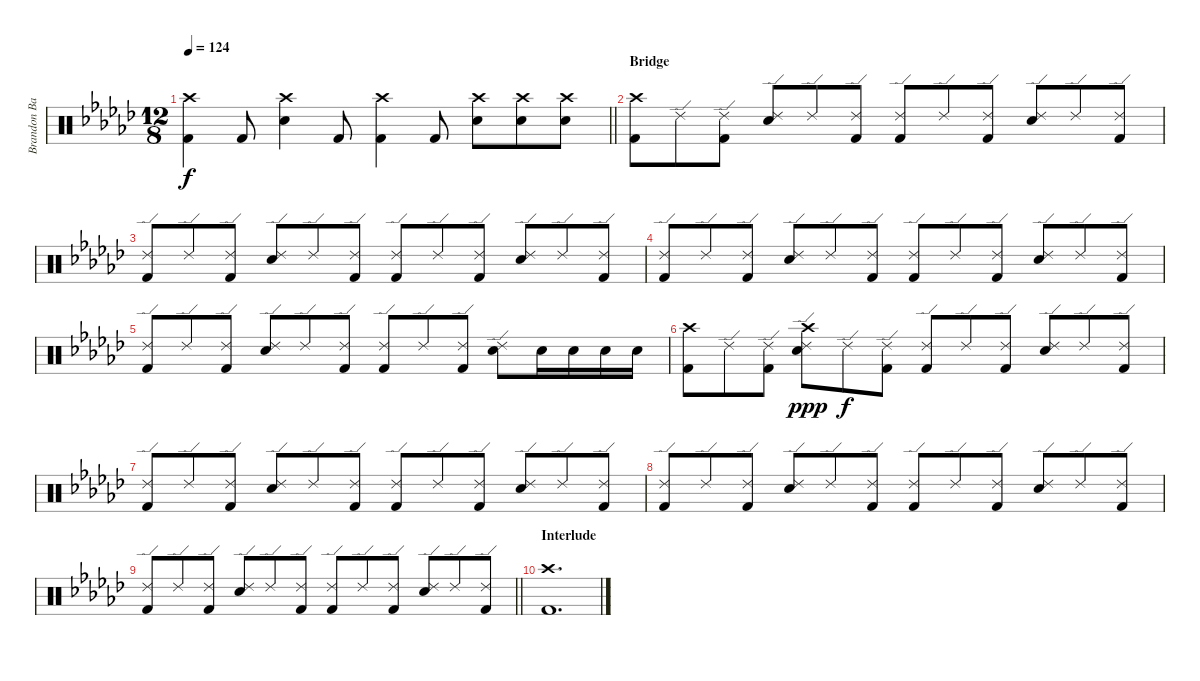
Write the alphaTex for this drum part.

\track ("Brandon Barnes - Drums" "Brandon Ba") {instrument percussion}
\staff {score}
\articulation defaults
\ts (12 8)
\tempo 124
\clef neutral
\barLineRight lightlight
\ks gb
("Crash high (hit)" "Kick (hit) 2").4{dy f} "Kick (hit) 2".8 ("Snare (hit) 2" "Crash high (hit)").4 "Kick (hit) 2".8 ("Crash high (hit)" "Kick (hit) 2").4 "Kick (hit) 2".8 ("Snare (hit) 2" "Crash high (hit)").8 ("Snare (hit) 2" "Crash high (hit)").8 ("Snare (hit) 2" "Crash high (hit)").8 |
\section ("" "Bridge")
("Crash high (hit)" "Kick (hit) 2").8 "Ride (edge) 2".8 ("Ride (edge) 2" "Kick (hit) 2").8 ("Snare (hit) 2" "Ride (edge) 2").8 "Ride (edge) 2".8 ("Ride (edge) 2" "Kick (hit) 2").8 ("Ride (edge) 2" "Kick (hit) 2").8 "Ride (edge) 2".8 ("Ride (edge) 2" "Kick (hit) 2").8 ("Snare (hit) 2" "Ride (edge) 2").8 "Ride (edge) 2".8 ("Ride (edge) 2" "Kick (hit) 2").8 |
("Ride (edge) 2" "Kick (hit) 2").8 "Ride (edge) 2".8 ("Ride (edge) 2" "Kick (hit) 2").8 ("Snare (hit) 2" "Ride (edge) 2").8 "Ride (edge) 2".8 ("Ride (edge) 2" "Kick (hit) 2").8 ("Ride (edge) 2" "Kick (hit) 2").8 "Ride (edge) 2".8 ("Ride (edge) 2" "Kick (hit) 2").8 ("Snare (hit) 2" "Ride (edge) 2").8 "Ride (edge) 2".8 ("Ride (edge) 2" "Kick (hit) 2").8 |
("Ride (edge) 2" "Kick (hit) 2").8 "Ride (edge) 2".8 ("Ride (edge) 2" "Kick (hit) 2").8 ("Snare (hit) 2" "Ride (edge) 2").8 "Ride (edge) 2".8 ("Ride (edge) 2" "Kick (hit) 2").8 ("Ride (edge) 2" "Kick (hit) 2").8 "Ride (edge) 2".8 ("Ride (edge) 2" "Kick (hit) 2").8 ("Snare (hit) 2" "Ride (edge) 2").8 "Ride (edge) 2".8 ("Ride (edge) 2" "Kick (hit) 2").8 |
("Ride (edge) 2" "Kick (hit) 2").8 "Ride (edge) 2".8 ("Ride (edge) 2" "Kick (hit) 2").8 ("Snare (hit) 2" "Ride (edge) 2").8 "Ride (edge) 2".8 ("Ride (edge) 2" "Kick (hit) 2").8 ("Ride (edge) 2" "Kick (hit) 2").8 "Ride (edge) 2".8 ("Ride (edge) 2" "Kick (hit) 2").8 ("Snare (hit) 2" "Ride (edge) 2").8 "Snare (hit) 2".16 "Snare (hit) 2".16 "Snare (hit) 2".16 "Snare (hit) 2".16 |
("Crash high (hit)" "Kick (hit) 2").8 "Ride (edge) 2".8 ("Ride (edge) 2" "Kick (hit) 2").8 ("Snare (hit) 2" "Ride (edge) 2" "Crash high (hit)").8{dy ppp} "Ride (edge) 2".8{dy f} ("Ride (edge) 2" "Kick (hit) 2").8 ("Ride (edge) 2" "Kick (hit) 2").8 "Ride (edge) 2".8 ("Ride (edge) 2" "Kick (hit) 2").8 ("Snare (hit) 2" "Ride (edge) 2").8 "Ride (edge) 2".8 ("Ride (edge) 2" "Kick (hit) 2").8 |
("Ride (edge) 2" "Kick (hit) 2").8 "Ride (edge) 2".8 ("Ride (edge) 2" "Kick (hit) 2").8 ("Snare (hit) 2" "Ride (edge) 2").8 "Ride (edge) 2".8 ("Ride (edge) 2" "Kick (hit) 2").8 ("Ride (edge) 2" "Kick (hit) 2").8 "Ride (edge) 2".8 ("Ride (edge) 2" "Kick (hit) 2").8 ("Snare (hit) 2" "Ride (edge) 2").8 "Ride (edge) 2".8 ("Ride (edge) 2" "Kick (hit) 2").8 |
("Ride (edge) 2" "Kick (hit) 2").8 "Ride (edge) 2".8 ("Ride (edge) 2" "Kick (hit) 2").8 ("Snare (hit) 2" "Ride (edge) 2").8 "Ride (edge) 2".8 ("Ride (edge) 2" "Kick (hit) 2").8 ("Ride (edge) 2" "Kick (hit) 2").8 "Ride (edge) 2".8 ("Ride (edge) 2" "Kick (hit) 2").8 ("Snare (hit) 2" "Ride (edge) 2").8 "Ride (edge) 2".8 ("Ride (edge) 2" "Kick (hit) 2").8 |
\barLineRight lightlight
("Ride (edge) 2" "Kick (hit) 2").8 "Ride (edge) 2".8 ("Ride (edge) 2" "Kick (hit) 2").8 ("Snare (hit) 2" "Ride (edge) 2").8 "Ride (edge) 2".8 ("Ride (edge) 2" "Kick (hit) 2").8 ("Ride (edge) 2" "Kick (hit) 2").8 "Ride (edge) 2".8 ("Ride (edge) 2" "Kick (hit) 2").8 ("Snare (hit) 2" "Ride (edge) 2").8 "Ride (edge) 2".8 ("Ride (edge) 2" "Kick (hit) 2").8 |
\section ("" "Interlude")
("Crash high (hit)" "Kick (hit) 2").1{d}
